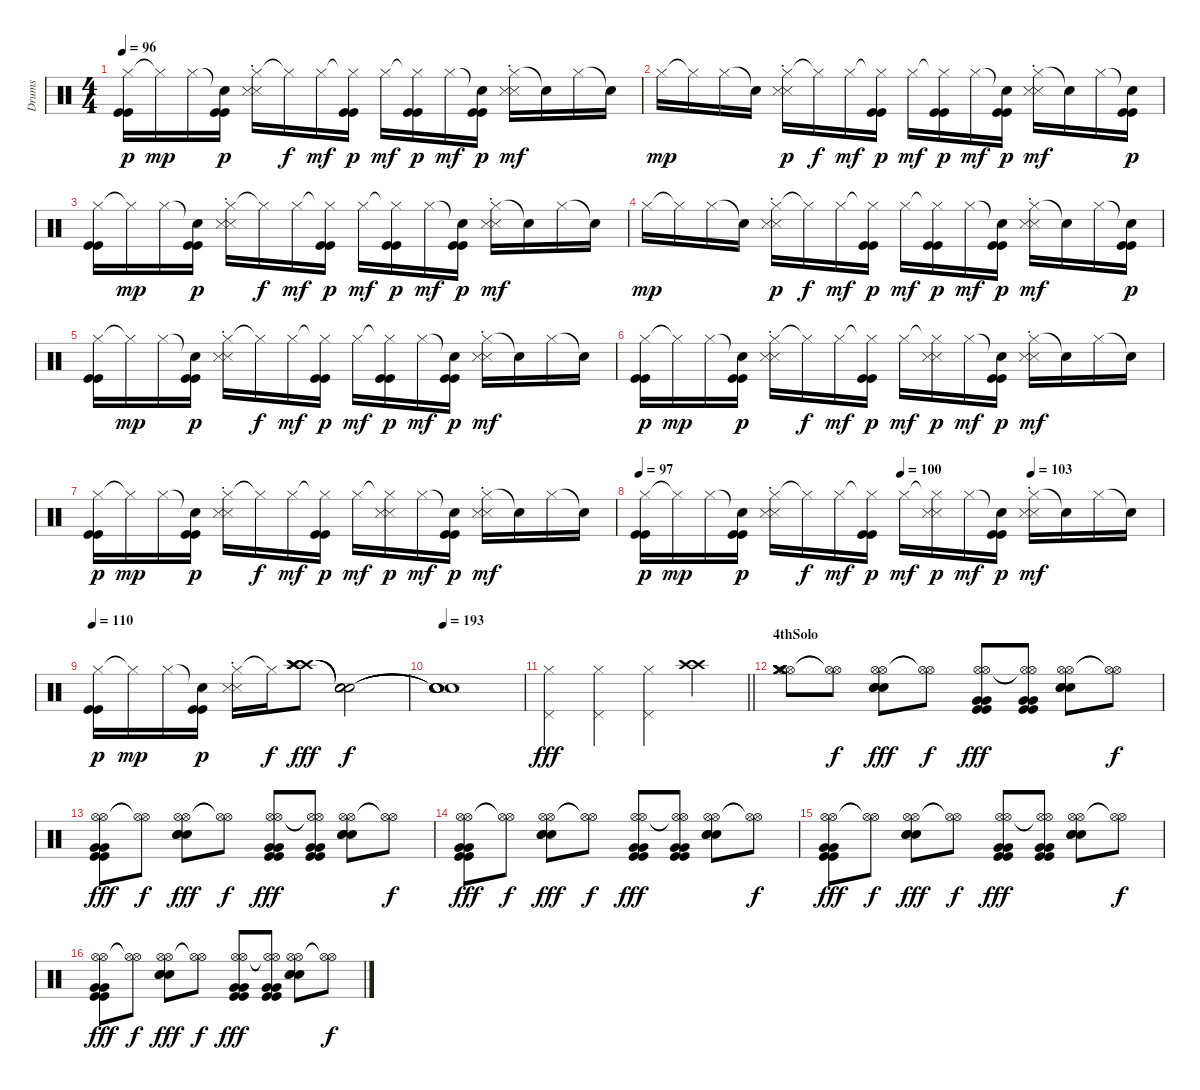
\track ("Drums" "Drums") {instrument percussion}
\staff {score}
\articulation defaults
\ts (4 4)
\tempo 96
\clef neutral
\ks c
("Hi-Hat (closed)" "Kick (hit)" "Kick (hit)").16{dy p} "Hi-Hat (closed)"{t}.16{dy mp} "Hi-Hat (closed)".16 ("Snare (hit)"{t} "Kick (hit)" "Kick (hit)").16{dy p} ("Hi-Hat (closed)" "Snare (side stick) 3"{st} "Snare (side stick) 3").16 "Hi-Hat (closed)"{t}.16{dy f} "Hi-Hat (closed)".16{dy mf} ("Hi-Hat (closed)"{t} "Kick (hit)" "Kick (hit)").16{dy p} "Hi-Hat (closed)".16{dy mf} ("Hi-Hat (closed)"{t} "Kick (hit)" "Kick (hit)").16{dy p} "Hi-Hat (closed)".16{dy mf} ("Snare (hit)"{t} "Kick (hit)" "Kick (hit)").16{dy p} ("Hi-Hat (closed)" "Snare (side stick) 3"{st} "Snare (side stick) 3").16{dy mf} "Snare (hit)"{t}.16 "Hi-Hat (closed)".16 "Snare (hit)"{t}.16 |
"Hi-Hat (closed)".16{dy mp} "Hi-Hat (closed)"{t}.16 "Hi-Hat (closed)".16 "Snare (hit)"{t}.16 ("Hi-Hat (closed)" "Snare (side stick) 3"{st} "Snare (side stick) 3").16{dy p} "Hi-Hat (closed)"{t}.16{dy f} "Hi-Hat (closed)".16{dy mf} ("Hi-Hat (closed)"{t} "Kick (hit)" "Kick (hit)").16{dy p} "Hi-Hat (closed)".16{dy mf} ("Hi-Hat (closed)"{t} "Kick (hit)" "Kick (hit)").16{dy p} "Hi-Hat (closed)".16{dy mf} ("Snare (hit)"{t} "Kick (hit)" "Kick (hit)").16{dy p} ("Hi-Hat (closed)" "Snare (side stick) 3"{st} "Snare (side stick) 3").16{dy mf} "Snare (hit)"{t}.16 "Hi-Hat (closed)".16 ("Snare (hit)"{t} "Kick (hit)" "Kick (hit)").16{dy p} |
("Hi-Hat (closed)" "Kick (hit)" "Kick (hit)").16 "Hi-Hat (closed)"{t}.16{dy mp} "Hi-Hat (closed)".16 ("Snare (hit)"{t} "Kick (hit)" "Kick (hit)").16{dy p} ("Hi-Hat (closed)" "Snare (side stick) 3"{st} "Snare (side stick) 3").16 "Hi-Hat (closed)"{t}.16{dy f} "Hi-Hat (closed)".16{dy mf} ("Hi-Hat (closed)"{t} "Kick (hit)" "Kick (hit)").16{dy p} "Hi-Hat (closed)".16{dy mf} ("Hi-Hat (closed)"{t} "Kick (hit)" "Kick (hit)").16{dy p} "Hi-Hat (closed)".16{dy mf} ("Snare (hit)"{t} "Kick (hit)" "Kick (hit)").16{dy p} ("Hi-Hat (closed)" "Snare (side stick) 3"{st} "Snare (side stick) 3").16{dy mf} "Snare (hit)"{t}.16 "Hi-Hat (closed)".16 "Snare (hit)"{t}.16 |
"Hi-Hat (closed)".16{dy mp} "Hi-Hat (closed)"{t}.16 "Hi-Hat (closed)".16 "Snare (hit)"{t}.16 ("Hi-Hat (closed)" "Snare (side stick) 3"{st} "Snare (side stick) 3").16{dy p} "Hi-Hat (closed)"{t}.16{dy f} "Hi-Hat (closed)".16{dy mf} ("Hi-Hat (closed)"{t} "Kick (hit)" "Kick (hit)").16{dy p} "Hi-Hat (closed)".16{dy mf} ("Hi-Hat (closed)"{t} "Kick (hit)" "Kick (hit)").16{dy p} "Hi-Hat (closed)".16{dy mf} ("Snare (hit)"{t} "Kick (hit)" "Kick (hit)").16{dy p} ("Hi-Hat (closed)" "Snare (side stick) 3"{st} "Snare (side stick) 3").16{dy mf} "Snare (hit)"{t}.16 "Hi-Hat (closed)".16 ("Snare (hit)"{t} "Kick (hit)" "Kick (hit)").16{dy p} |
("Hi-Hat (closed)" "Kick (hit)" "Kick (hit)").16 "Hi-Hat (closed)"{t}.16{dy mp} "Hi-Hat (closed)".16 ("Snare (hit)"{t} "Kick (hit)" "Kick (hit)").16{dy p} ("Hi-Hat (closed)" "Snare (side stick) 3"{st} "Snare (side stick) 3").16 "Hi-Hat (closed)"{t}.16{dy f} "Hi-Hat (closed)".16{dy mf} ("Hi-Hat (closed)"{t} "Kick (hit)" "Kick (hit)").16{dy p} "Hi-Hat (closed)".16{dy mf} ("Hi-Hat (closed)"{t} "Kick (hit)" "Kick (hit)").16{dy p} "Hi-Hat (closed)".16{dy mf} ("Snare (hit)"{t} "Kick (hit)" "Kick (hit)").16{dy p} ("Hi-Hat (closed)" "Snare (side stick) 3"{st} "Snare (side stick) 3").16{dy mf} "Snare (hit)"{t}.16 "Hi-Hat (closed)".16 "Snare (hit)"{t}.16 |
("Hi-Hat (closed)" "Kick (hit)" "Kick (hit)").16{dy p} "Hi-Hat (closed)"{t}.16{dy mp} "Hi-Hat (closed)".16 ("Snare (hit)"{t} "Kick (hit)" "Kick (hit)").16{dy p} ("Hi-Hat (closed)" "Snare (side stick) 3"{st} "Snare (side stick) 3").16 "Hi-Hat (closed)"{t}.16{dy f} "Hi-Hat (closed)".16{dy mf} ("Hi-Hat (closed)"{t} "Kick (hit)" "Kick (hit)").16{dy p} "Hi-Hat (closed)".16{dy mf} ("Hi-Hat (closed)"{t} "Snare (side stick) 3" "Snare (side stick) 3").16{dy p} "Hi-Hat (closed)".16{dy mf} ("Snare (hit)"{t} "Kick (hit)" "Kick (hit)").16{dy p} ("Hi-Hat (closed)" "Snare (side stick) 3"{st} "Snare (side stick) 3").16{dy mf} "Snare (hit)"{t}.16 "Hi-Hat (closed)".16 "Snare (hit)"{t}.16 |
("Hi-Hat (closed)" "Kick (hit)" "Kick (hit)").16{dy p} "Hi-Hat (closed)"{t}.16{dy mp} "Hi-Hat (closed)".16 ("Snare (hit)"{t} "Kick (hit)" "Kick (hit)").16{dy p} ("Hi-Hat (closed)" "Snare (side stick) 3"{st} "Snare (side stick) 3").16 "Hi-Hat (closed)"{t}.16{dy f} "Hi-Hat (closed)".16{dy mf} ("Hi-Hat (closed)"{t} "Kick (hit)" "Kick (hit)").16{dy p} "Hi-Hat (closed)".16{dy mf} ("Hi-Hat (closed)"{t} "Snare (side stick) 3" "Snare (side stick) 3").16{dy p} "Hi-Hat (closed)".16{dy mf} ("Snare (hit)"{t} "Kick (hit)" "Kick (hit)").16{dy p} ("Hi-Hat (closed)" "Snare (side stick) 3"{st} "Snare (side stick) 3").16{dy mf} "Snare (hit)"{t}.16 "Hi-Hat (closed)".16 "Snare (hit)"{t}.16 |
\tempo 97
\tempo (100 0.5)
\tempo (103 0.75)
("Hi-Hat (closed)" "Kick (hit)" "Kick (hit)").16{dy p} "Hi-Hat (closed)"{t}.16{dy mp} "Hi-Hat (closed)".16 ("Snare (hit)"{t} "Kick (hit)" "Kick (hit)").16{dy p} ("Hi-Hat (closed)" "Snare (side stick) 3"{st} "Snare (side stick) 3").16 "Hi-Hat (closed)"{t}.16{dy f} "Hi-Hat (closed)".16{dy mf} ("Hi-Hat (closed)"{t} "Kick (hit)" "Kick (hit)").16{dy p} "Hi-Hat (closed)".16{dy mf} ("Hi-Hat (closed)"{t} "Snare (side stick) 3" "Snare (side stick) 3").16{dy p} "Hi-Hat (closed)".16{dy mf} ("Snare (hit)"{t} "Kick (hit)" "Kick (hit)").16{dy p} ("Hi-Hat (closed)" "Snare (side stick) 3"{st} "Snare (side stick) 3").16{dy mf} "Snare (hit)"{t}.16 "Hi-Hat (closed)".16 "Snare (hit)"{t}.16 |
\tempo 110
("Hi-Hat (closed)" "Kick (hit)" "Kick (hit)").16{dy p} "Hi-Hat (closed)"{t}.16{dy mp} "Hi-Hat (closed)".16 ("Snare (hit)"{t} "Kick (hit)" "Kick (hit)").16{dy p} ("Hi-Hat (closed)" "Snare (side stick) 3"{st} "Snare (side stick) 3").16 "Hi-Hat (closed)"{t}.16{dy f} ("Crash high (hit)" "Crash high (hit)" "Crash high (hit)" "Crash high (hit)").8{dy fff} ("Snare (hit)"{t} "Snare (hit)"{t} "Snare (hit)"{t} "Snare (hit)"{t}).2{dy f} |
\tempo 193
("Snare (hit)"{t} "Snare (hit)"{t} "Snare (hit)"{t} "Snare (hit)"{t}).1 |
\barLineRight lightlight
("Pedal Hi-Hat (hit)" "Hi-Hat (closed)").4{dy fff volume 16} ("Pedal Hi-Hat (hit)" "Hi-Hat (closed)").4 ("Pedal Hi-Hat (hit)" "Hi-Hat (closed)").4 ("Crash high (hit)" "Crash high (hit)").4 |
\section ("" "4thSolo")
("Hi-Hat (open)" "Hi-Hat (open)" "Crash medium (hit)" "Crash medium (hit)" "Crash medium (hit)" "Crash medium (hit)").8 ("Hi-Hat (open)"{t} "Hi-Hat (open)"{t}).8{dy f} ("Hi-Hat (open)" "Hi-Hat (open)" "Snare (hit) 2" "Snare (hit) 2" "Snare (hit) 2").8{dy fff} ("Hi-Hat (open)"{t} "Hi-Hat (open)"{t}).8{dy f} ("Hi-Hat (open)" "Hi-Hat (open)" "Kick (hit)" "Kick (hit)" "Very Low Tom (hit)" "Very Low Tom (hit)").8{dy fff} ("Hi-Hat (open)"{t} "Hi-Hat (open)"{t} "Kick (hit)" "Kick (hit)" "Very Low Tom (hit)" "Very Low Tom (hit)").8 ("Hi-Hat (open)" "Hi-Hat (open)" "Snare (hit) 2" "Snare (hit) 2" "Snare (hit) 2").8 ("Hi-Hat (open)"{t} "Hi-Hat (open)"{t}).8{dy f} |
("Hi-Hat (open)" "Hi-Hat (open)" "Kick (hit)" "Kick (hit)" "Very Low Tom (hit)" "Very Low Tom (hit)").8{dy fff} ("Hi-Hat (open)"{t} "Hi-Hat (open)"{t}).8{dy f} ("Hi-Hat (open)" "Hi-Hat (open)" "Snare (hit) 2" "Snare (hit) 2" "Snare (hit) 2").8{dy fff} ("Hi-Hat (open)"{t} "Hi-Hat (open)"{t}).8{dy f} ("Hi-Hat (open)" "Hi-Hat (open)" "Kick (hit)" "Kick (hit)" "Very Low Tom (hit)" "Very Low Tom (hit)").8{dy fff} ("Hi-Hat (open)"{t} "Hi-Hat (open)"{t} "Kick (hit)" "Kick (hit)" "Very Low Tom (hit)" "Very Low Tom (hit)").8 ("Hi-Hat (open)" "Hi-Hat (open)" "Snare (hit) 2" "Snare (hit) 2" "Snare (hit) 2").8 ("Hi-Hat (open)"{t} "Hi-Hat (open)"{t}).8{dy f} |
("Hi-Hat (open)" "Hi-Hat (open)" "Kick (hit)" "Kick (hit)" "Very Low Tom (hit)" "Very Low Tom (hit)").8{dy fff} ("Hi-Hat (open)"{t} "Hi-Hat (open)"{t}).8{dy f} ("Hi-Hat (open)" "Hi-Hat (open)" "Snare (hit) 2" "Snare (hit) 2" "Snare (hit) 2").8{dy fff} ("Hi-Hat (open)"{t} "Hi-Hat (open)"{t}).8{dy f} ("Hi-Hat (open)" "Hi-Hat (open)" "Kick (hit)" "Kick (hit)" "Very Low Tom (hit)" "Very Low Tom (hit)").8{dy fff} ("Hi-Hat (open)"{t} "Hi-Hat (open)"{t} "Kick (hit)" "Kick (hit)" "Very Low Tom (hit)" "Very Low Tom (hit)").8 ("Hi-Hat (open)" "Hi-Hat (open)" "Snare (hit) 2" "Snare (hit) 2" "Snare (hit) 2").8 ("Hi-Hat (open)"{t} "Hi-Hat (open)"{t}).8{dy f} |
("Hi-Hat (open)" "Hi-Hat (open)" "Kick (hit)" "Kick (hit)" "Very Low Tom (hit)" "Very Low Tom (hit)").8{dy fff} ("Hi-Hat (open)"{t} "Hi-Hat (open)"{t}).8{dy f} ("Hi-Hat (open)" "Hi-Hat (open)" "Snare (hit) 2" "Snare (hit) 2" "Snare (hit) 2").8{dy fff} ("Hi-Hat (open)"{t} "Hi-Hat (open)"{t}).8{dy f} ("Hi-Hat (open)" "Hi-Hat (open)" "Kick (hit)" "Kick (hit)" "Very Low Tom (hit)" "Very Low Tom (hit)").8{dy fff} ("Hi-Hat (open)"{t} "Hi-Hat (open)"{t} "Kick (hit)" "Kick (hit)" "Very Low Tom (hit)" "Very Low Tom (hit)").8 ("Hi-Hat (open)" "Hi-Hat (open)" "Snare (hit) 2" "Snare (hit) 2" "Snare (hit) 2").8 ("Hi-Hat (open)"{t} "Hi-Hat (open)"{t}).8{dy f} |
("Hi-Hat (open)" "Hi-Hat (open)" "Kick (hit)" "Kick (hit)" "Very Low Tom (hit)" "Very Low Tom (hit)").8{dy fff} ("Hi-Hat (open)"{t} "Hi-Hat (open)"{t}).8{dy f} ("Hi-Hat (open)" "Hi-Hat (open)" "Snare (hit) 2" "Snare (hit) 2" "Snare (hit) 2").8{dy fff} ("Hi-Hat (open)"{t} "Hi-Hat (open)"{t}).8{dy f} ("Hi-Hat (open)" "Hi-Hat (open)" "Kick (hit)" "Kick (hit)" "Very Low Tom (hit)" "Very Low Tom (hit)").8{dy fff} ("Hi-Hat (open)"{t} "Hi-Hat (open)"{t} "Kick (hit)" "Kick (hit)" "Very Low Tom (hit)" "Very Low Tom (hit)").8 ("Hi-Hat (open)" "Hi-Hat (open)" "Snare (hit) 2" "Snare (hit) 2" "Snare (hit) 2").8 ("Hi-Hat (open)"{t} "Hi-Hat (open)"{t}).8{dy f}
